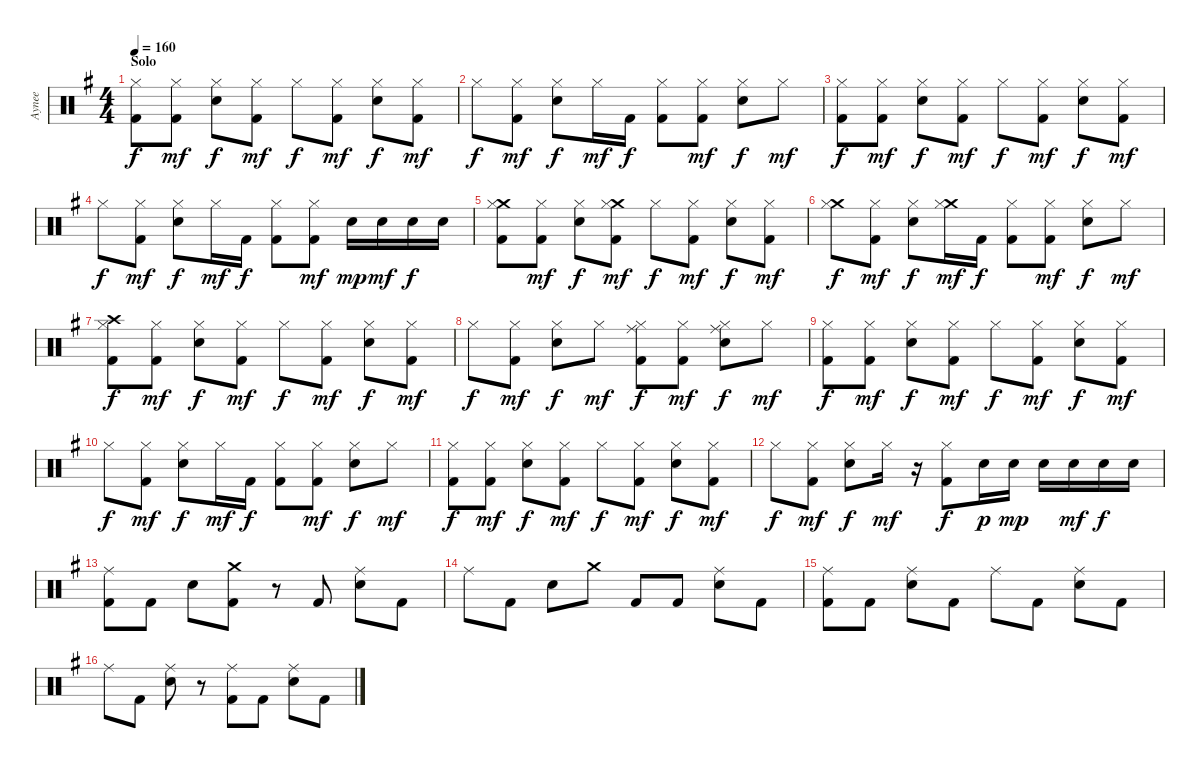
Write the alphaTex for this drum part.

\track ("Aynee " "Aynee ") {instrument percussion}
\staff {score}
\articulation defaults
\ts (4 4)
\section ("" "Solo")
\tempo 160
\clef neutral
\ks eminor
("Hi-Hat (closed)" "Kick (hit) 2").8{dy f} ("Hi-Hat (closed)" "Kick (hit) 2").8{dy mf} ("Hi-Hat (closed)" "Electric Snare (hit)").8{dy f} ("Hi-Hat (closed)" "Kick (hit) 2").8{dy mf} "Hi-Hat (closed)".8{dy f} ("Hi-Hat (closed)" "Kick (hit) 2").8{dy mf} ("Hi-Hat (closed)" "Electric Snare (hit)").8{dy f} ("Hi-Hat (closed)" "Kick (hit) 2").8{dy mf} |
"Hi-Hat (closed)".8{dy f} ("Hi-Hat (closed)" "Kick (hit) 2").8{dy mf} ("Hi-Hat (closed)" "Electric Snare (hit)").8{dy f} "Hi-Hat (closed)".16{dy mf} "Kick (hit) 2".16{dy f} ("Hi-Hat (closed)" "Kick (hit) 2").8 ("Hi-Hat (closed)" "Kick (hit) 2").8{dy mf} ("Hi-Hat (closed)" "Electric Snare (hit)").8{dy f} "Hi-Hat (closed)".8{dy mf} |
("Hi-Hat (closed)" "Kick (hit) 2").8{dy f} ("Hi-Hat (closed)" "Kick (hit) 2").8{dy mf} ("Hi-Hat (closed)" "Electric Snare (hit)").8{dy f} ("Hi-Hat (closed)" "Kick (hit) 2").8{dy mf} "Hi-Hat (closed)".8{dy f} ("Hi-Hat (closed)" "Kick (hit) 2").8{dy mf} ("Hi-Hat (closed)" "Electric Snare (hit)").8{dy f} ("Hi-Hat (closed)" "Kick (hit) 2").8{dy mf} |
"Hi-Hat (closed)".8{dy f} ("Hi-Hat (closed)" "Kick (hit) 2").8{dy mf} ("Hi-Hat (closed)" "Electric Snare (hit)").8{dy f} "Hi-Hat (closed)".16{dy mf} "Kick (hit) 2".16{dy f} ("Hi-Hat (closed)" "Kick (hit) 2").8 ("Hi-Hat (closed)" "Kick (hit) 2").8{dy mf} "Electric Snare (hit)".16{dy mp} "Electric Snare (hit)".16{dy mf} "Electric Snare (hit)".16{dy f} "Electric Snare (hit)".16 |
("Crash medium (hit)" "Hi-Hat (closed)" "Kick (hit) 2").8 ("Hi-Hat (closed)" "Kick (hit) 2").8{dy mf} ("Hi-Hat (closed)" "Electric Snare (hit)").8{dy f} ("Crash medium (hit)" "Hi-Hat (closed)" "Kick (hit) 2").8{dy mf} "Hi-Hat (closed)".8{dy f} ("Hi-Hat (closed)" "Kick (hit) 2").8{dy mf} ("Hi-Hat (closed)" "Electric Snare (hit)").8{dy f} ("Hi-Hat (closed)" "Kick (hit) 2").8{dy mf} |
("Crash medium (hit)" "Hi-Hat (closed)").8{dy f} ("Hi-Hat (closed)" "Kick (hit) 2").8{dy mf} ("Hi-Hat (closed)" "Electric Snare (hit)").8{dy f} ("Crash medium (hit)" "Hi-Hat (closed)").16{dy mf} "Kick (hit) 2".16{dy f} ("Hi-Hat (closed)" "Kick (hit) 2").8 ("Hi-Hat (closed)" "Kick (hit) 2").8{dy mf} ("Hi-Hat (closed)" "Electric Snare (hit)").8{dy f} "Hi-Hat (closed)".8{dy mf} |
("Crash high (hit)" "Hi-Hat (closed)" "Kick (hit) 2").8{dy f} ("Hi-Hat (closed)" "Kick (hit) 2").8{dy mf} ("Hi-Hat (closed)" "Electric Snare (hit)").8{dy f} ("Hi-Hat (closed)" "Kick (hit) 2").8{dy mf} "Hi-Hat (closed)".8{dy f} ("Hi-Hat (closed)" "Kick (hit) 2").8{dy mf} ("Hi-Hat (closed)" "Electric Snare (hit)").8{dy f} ("Hi-Hat (closed)" "Kick (hit) 2").8{dy mf} |
"Hi-Hat (closed)".8{dy f} ("Hi-Hat (closed)" "Kick (hit) 2").8{dy mf} ("Hi-Hat (closed)" "Electric Snare (hit)").8{dy f} "Hi-Hat (closed)".8{dy mf} ("Ride (middle)" "Hi-Hat (closed)" "Kick (hit) 2").8{dy f} ("Hi-Hat (closed)" "Kick (hit) 2").8{dy mf} ("Ride (middle)" "Hi-Hat (closed)" "Electric Snare (hit)").8{dy f} "Hi-Hat (closed)".8{dy mf} |
("Hi-Hat (closed)" "Kick (hit) 2").8{dy f} ("Hi-Hat (closed)" "Kick (hit) 2").8{dy mf} ("Hi-Hat (closed)" "Electric Snare (hit)").8{dy f} ("Hi-Hat (closed)" "Kick (hit) 2").8{dy mf} "Hi-Hat (closed)".8{dy f} ("Hi-Hat (closed)" "Kick (hit) 2").8{dy mf} ("Hi-Hat (closed)" "Electric Snare (hit)").8{dy f} ("Hi-Hat (closed)" "Kick (hit) 2").8{dy mf} |
"Hi-Hat (closed)".8{dy f} ("Hi-Hat (closed)" "Kick (hit) 2").8{dy mf} ("Hi-Hat (closed)" "Electric Snare (hit)").8{dy f} "Hi-Hat (closed)".16{dy mf} "Kick (hit) 2".16{dy f} ("Hi-Hat (closed)" "Kick (hit) 2").8 ("Hi-Hat (closed)" "Kick (hit) 2").8{dy mf} ("Hi-Hat (closed)" "Electric Snare (hit)").8{dy f} "Hi-Hat (closed)".8{dy mf} |
("Hi-Hat (closed)" "Kick (hit) 2").8{dy f} ("Hi-Hat (closed)" "Kick (hit) 2").8{dy mf} ("Hi-Hat (closed)" "Electric Snare (hit)").8{dy f} ("Hi-Hat (closed)" "Kick (hit) 2").8{dy mf} "Hi-Hat (closed)".8{dy f} ("Hi-Hat (closed)" "Kick (hit) 2").8{dy mf} ("Hi-Hat (closed)" "Electric Snare (hit)").8{dy f} ("Hi-Hat (closed)" "Kick (hit) 2").8{dy mf} |
"Hi-Hat (closed)".8{dy f} ("Hi-Hat (closed)" "Kick (hit) 2").8{dy mf} ("Hi-Hat (closed)" "Electric Snare (hit)").8{dy f} "Hi-Hat (closed)".16{dy mf} r.16 ("Hi-Hat (closed)" "Kick (hit) 2").8{dy f} "Electric Snare (hit)".16{dy p} "Electric Snare (hit)".16{dy mp} "Electric Snare (hit)".16 "Electric Snare (hit)".16{dy mf} "Electric Snare (hit)".16{dy f} "Electric Snare (hit)".16 |
("Ride (middle)" "Kick (hit) 2").8 "Kick (hit) 2".8 "Electric Snare (hit)".8 ("Crash medium (hit)" "Kick (hit) 2").8 r.8 "Kick (hit) 2".8 ("Ride (middle)" "Electric Snare (hit)").8 "Kick (hit) 2".8 |
"Ride (middle)".8 "Kick (hit) 2".8 "Electric Snare (hit)".8 "Crash medium (hit)".8 "Kick (hit) 2".8 "Kick (hit) 2".8 ("Ride (middle)" "Electric Snare (hit)").8 "Kick (hit) 2".8 |
("Ride (middle)" "Kick (hit) 2").8 "Kick (hit) 2".8 ("Ride (middle)" "Electric Snare (hit)").8 "Kick (hit) 2".8 "Ride (middle)".8 "Kick (hit) 2".8 ("Ride (middle)" "Electric Snare (hit)").8 "Kick (hit) 2".8 |
"Ride (middle)".8 "Kick (hit) 2".8 ("Ride (middle)" "Electric Snare (hit)").8 r.8 ("Ride (middle)" "Kick (hit) 2").8 "Kick (hit) 2".8 ("Ride (middle)" "Electric Snare (hit)").8 "Kick (hit) 2".8
